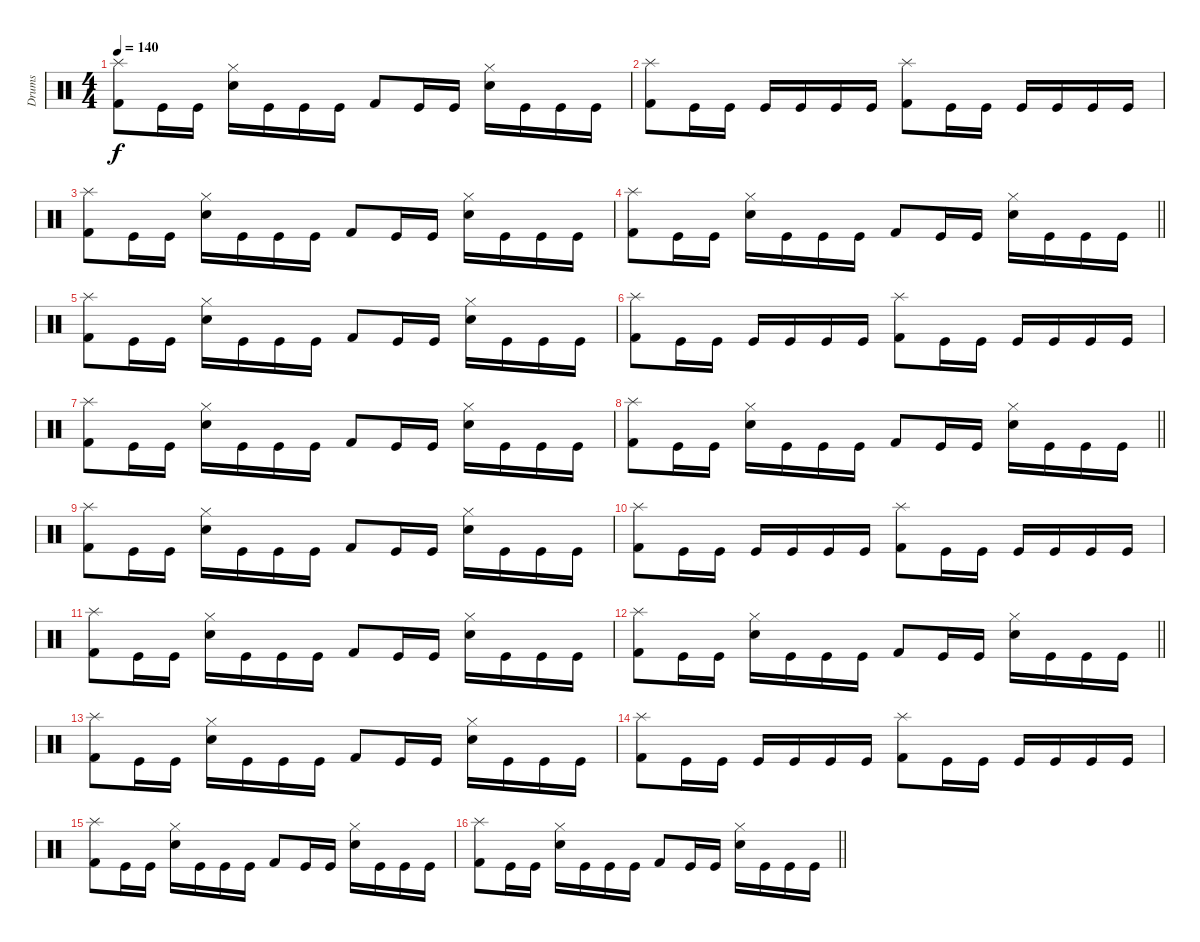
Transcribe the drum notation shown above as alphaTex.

\track ("Drums" "Drums") {instrument percussion}
\staff {score}
\articulation defaults
\ts (4 4)
\tempo 140
\clef neutral
\ks c
("Splash (hit)" "Kick (hit) 2").8{dy f} "Kick (hit)".16 "Kick (hit)".16 ("Snare (hit) 2" "Hi-Hat (closed)").16 "Kick (hit)".16 "Kick (hit)".16 "Kick (hit)".16 "Kick (hit) 2".8 "Kick (hit)".16 "Kick (hit)".16 ("Snare (hit) 2" "Hi-Hat (closed)").16 "Kick (hit)".16 "Kick (hit)".16 "Kick (hit)".16 |
("Splash (hit)" "Kick (hit) 2").8 "Kick (hit)".16 "Kick (hit)".16 "Kick (hit)".16 "Kick (hit)".16 "Kick (hit)".16 "Kick (hit)".16 ("Splash (hit)" "Kick (hit) 2").8 "Kick (hit)".16 "Kick (hit)".16 "Kick (hit)".16 "Kick (hit)".16 "Kick (hit)".16 "Kick (hit)".16 |
("Splash (hit)" "Kick (hit) 2").8 "Kick (hit)".16 "Kick (hit)".16 ("Snare (hit) 2" "Hi-Hat (closed)").16 "Kick (hit)".16 "Kick (hit)".16 "Kick (hit)".16 "Kick (hit) 2".8 "Kick (hit)".16 "Kick (hit)".16 ("Snare (hit) 2" "Hi-Hat (closed)").16 "Kick (hit)".16 "Kick (hit)".16 "Kick (hit)".16 |
\barLineRight lightlight
("Splash (hit)" "Kick (hit) 2").8 "Kick (hit)".16 "Kick (hit)".16 ("Snare (hit) 2" "Hi-Hat (closed)").16 "Kick (hit)".16 "Kick (hit)".16 "Kick (hit)".16 "Kick (hit) 2".8 "Kick (hit)".16 "Kick (hit)".16 ("Snare (hit) 2" "Hi-Hat (closed)").16 "Kick (hit)".16 "Kick (hit)".16 "Kick (hit)".16 |
("Splash (hit)" "Kick (hit) 2").8 "Kick (hit)".16 "Kick (hit)".16 ("Snare (hit) 2" "Hi-Hat (closed)").16 "Kick (hit)".16 "Kick (hit)".16 "Kick (hit)".16 "Kick (hit) 2".8 "Kick (hit)".16 "Kick (hit)".16 ("Snare (hit) 2" "Hi-Hat (closed)").16 "Kick (hit)".16 "Kick (hit)".16 "Kick (hit)".16 |
("Splash (hit)" "Kick (hit) 2").8 "Kick (hit)".16 "Kick (hit)".16 "Kick (hit)".16 "Kick (hit)".16 "Kick (hit)".16 "Kick (hit)".16 ("Splash (hit)" "Kick (hit) 2").8 "Kick (hit)".16 "Kick (hit)".16 "Kick (hit)".16 "Kick (hit)".16 "Kick (hit)".16 "Kick (hit)".16 |
("Splash (hit)" "Kick (hit) 2").8 "Kick (hit)".16 "Kick (hit)".16 ("Snare (hit) 2" "Hi-Hat (closed)").16 "Kick (hit)".16 "Kick (hit)".16 "Kick (hit)".16 "Kick (hit) 2".8 "Kick (hit)".16 "Kick (hit)".16 ("Snare (hit) 2" "Hi-Hat (closed)").16 "Kick (hit)".16 "Kick (hit)".16 "Kick (hit)".16 |
\barLineRight lightlight
("Splash (hit)" "Kick (hit) 2").8 "Kick (hit)".16 "Kick (hit)".16 ("Snare (hit) 2" "Hi-Hat (closed)").16 "Kick (hit)".16 "Kick (hit)".16 "Kick (hit)".16 "Kick (hit) 2".8 "Kick (hit)".16 "Kick (hit)".16 ("Snare (hit) 2" "Hi-Hat (closed)").16 "Kick (hit)".16 "Kick (hit)".16 "Kick (hit)".16 |
("Splash (hit)" "Kick (hit) 2").8 "Kick (hit)".16 "Kick (hit)".16 ("Snare (hit) 2" "Hi-Hat (closed)").16 "Kick (hit)".16 "Kick (hit)".16 "Kick (hit)".16 "Kick (hit) 2".8 "Kick (hit)".16 "Kick (hit)".16 ("Snare (hit) 2" "Hi-Hat (closed)").16 "Kick (hit)".16 "Kick (hit)".16 "Kick (hit)".16 |
("Splash (hit)" "Kick (hit) 2").8 "Kick (hit)".16 "Kick (hit)".16 "Kick (hit)".16 "Kick (hit)".16 "Kick (hit)".16 "Kick (hit)".16 ("Splash (hit)" "Kick (hit) 2").8 "Kick (hit)".16 "Kick (hit)".16 "Kick (hit)".16 "Kick (hit)".16 "Kick (hit)".16 "Kick (hit)".16 |
("Splash (hit)" "Kick (hit) 2").8 "Kick (hit)".16 "Kick (hit)".16 ("Snare (hit) 2" "Hi-Hat (closed)").16 "Kick (hit)".16 "Kick (hit)".16 "Kick (hit)".16 "Kick (hit) 2".8 "Kick (hit)".16 "Kick (hit)".16 ("Snare (hit) 2" "Hi-Hat (closed)").16 "Kick (hit)".16 "Kick (hit)".16 "Kick (hit)".16 |
\barLineRight lightlight
("Splash (hit)" "Kick (hit) 2").8 "Kick (hit)".16 "Kick (hit)".16 ("Snare (hit) 2" "Hi-Hat (closed)").16 "Kick (hit)".16 "Kick (hit)".16 "Kick (hit)".16 "Kick (hit) 2".8 "Kick (hit)".16 "Kick (hit)".16 ("Snare (hit) 2" "Hi-Hat (closed)").16 "Kick (hit)".16 "Kick (hit)".16 "Kick (hit)".16 |
("Splash (hit)" "Kick (hit) 2").8 "Kick (hit)".16 "Kick (hit)".16 ("Snare (hit) 2" "Hi-Hat (closed)").16 "Kick (hit)".16 "Kick (hit)".16 "Kick (hit)".16 "Kick (hit) 2".8 "Kick (hit)".16 "Kick (hit)".16 ("Snare (hit) 2" "Hi-Hat (closed)").16 "Kick (hit)".16 "Kick (hit)".16 "Kick (hit)".16 |
("Splash (hit)" "Kick (hit) 2").8 "Kick (hit)".16 "Kick (hit)".16 "Kick (hit)".16 "Kick (hit)".16 "Kick (hit)".16 "Kick (hit)".16 ("Splash (hit)" "Kick (hit) 2").8 "Kick (hit)".16 "Kick (hit)".16 "Kick (hit)".16 "Kick (hit)".16 "Kick (hit)".16 "Kick (hit)".16 |
("Splash (hit)" "Kick (hit) 2").8 "Kick (hit)".16 "Kick (hit)".16 ("Snare (hit) 2" "Hi-Hat (closed)").16 "Kick (hit)".16 "Kick (hit)".16 "Kick (hit)".16 "Kick (hit) 2".8 "Kick (hit)".16 "Kick (hit)".16 ("Snare (hit) 2" "Hi-Hat (closed)").16 "Kick (hit)".16 "Kick (hit)".16 "Kick (hit)".16 |
\barLineRight lightlight
("Splash (hit)" "Kick (hit) 2").8 "Kick (hit)".16 "Kick (hit)".16 ("Snare (hit) 2" "Hi-Hat (closed)").16 "Kick (hit)".16 "Kick (hit)".16 "Kick (hit)".16 "Kick (hit) 2".8 "Kick (hit)".16 "Kick (hit)".16 ("Snare (hit) 2" "Hi-Hat (closed)").16 "Kick (hit)".16 "Kick (hit)".16 "Kick (hit)".16
